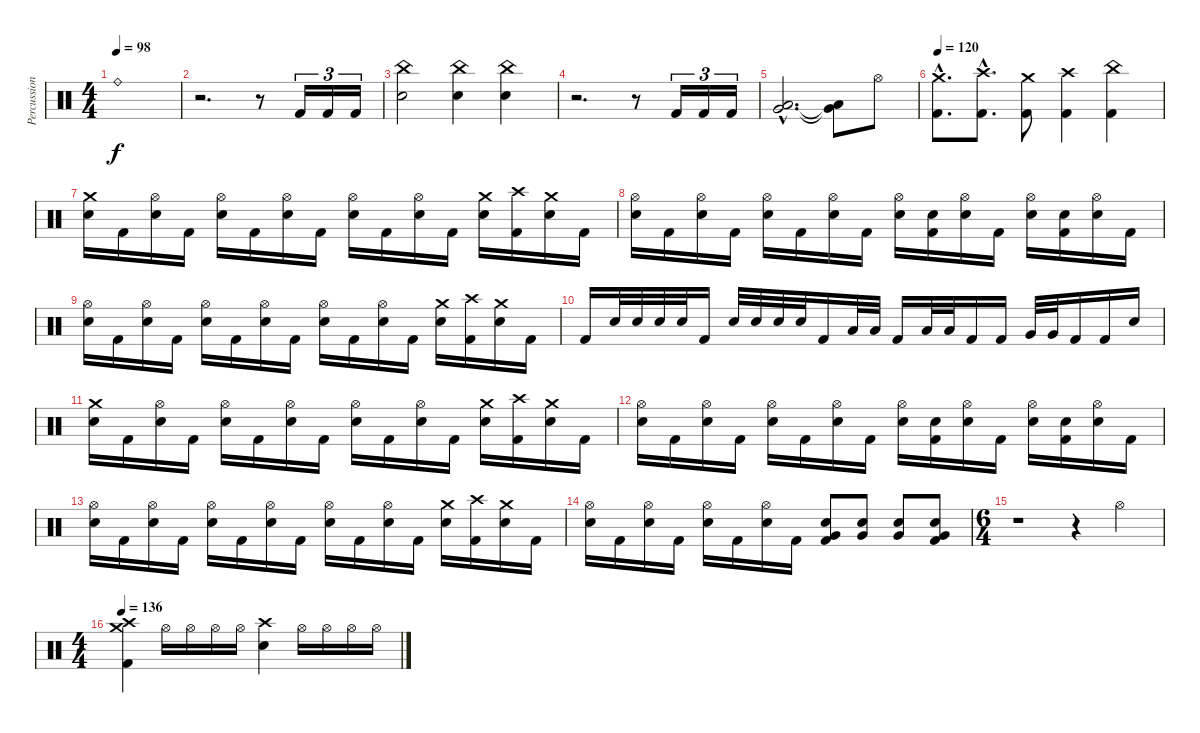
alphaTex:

\track ("Percussion" "Percussion") {instrument percussion}
\staff {score}
\articulation defaults
\ts (4 4)
\tempo 98
\clef neutral
\ks c "Ride (bell)".1{dy f}
|
r.2{d} r.8 "Kick (hit) 2".16{tu (3 2)} "Kick (hit) 2".16{tu (3 2)} "Kick (hit) 2".16{tu (3 2)} |
("China (hit)" "Electric Snare (hit)").2 ("China (hit)" "Electric Snare (hit)").4 ("China (hit)" "Electric Snare (hit)").4 |
r.2{d} r.8 "Kick (hit) 2".16{tu (3 2)} "Kick (hit) 2".16{tu (3 2)} "Kick (hit) 2".16{tu (3 2)} |
("Low Tom (hit)"{hac} "Very Low Tom (hit)"{hac}).2{d} ("Low Tom (hit)"{t} "Very Low Tom (hit)"{t}).8 "Hi-Hat (open)".8 |
\tempo 120
("Crash medium (hit)"{hac} "Kick (hit) 2"{hac}).8{d} ("Crash high (hit)"{hac} "Kick (hit) 2"{hac}).8{d} ("Crash medium (hit)" "Kick (hit) 2").8 ("Crash high (hit)" "Kick (hit) 2").4 ("China (hit)" "Kick (hit) 2").4 |
("Crash medium (hit)" "Electric Snare (hit)").16 "Kick (hit) 2".16 ("Hi-Hat (open)" "Electric Snare (hit)").16 "Kick (hit) 2".16 ("Hi-Hat (open)" "Electric Snare (hit)").16 "Kick (hit) 2".16 ("Hi-Hat (open)" "Electric Snare (hit)").16 "Kick (hit) 2".16 ("Hi-Hat (open)" "Electric Snare (hit)").16 "Kick (hit) 2".16 ("Hi-Hat (open)" "Electric Snare (hit)").16 "Kick (hit) 2".16 ("Crash medium (hit)" "Electric Snare (hit)").16 ("Crash high (hit)" "Kick (hit) 2").16 ("Crash medium (hit)" "Electric Snare (hit)").16 "Kick (hit) 2".16 |
("Hi-Hat (open)" "Electric Snare (hit)").16 "Kick (hit) 2".16 ("Hi-Hat (open)" "Electric Snare (hit)").16 "Kick (hit) 2".16 ("Hi-Hat (open)" "Electric Snare (hit)").16 "Kick (hit) 2".16 ("Hi-Hat (open)" "Electric Snare (hit)").16 "Kick (hit) 2".16 ("Hi-Hat (open)" "Electric Snare (hit)").16 ("Electric Snare (hit)" "Kick (hit) 2").16 ("Hi-Hat (open)" "Electric Snare (hit)").16 "Kick (hit) 2".16 ("Hi-Hat (open)" "Electric Snare (hit)").16 ("Electric Snare (hit)" "Kick (hit) 2").16 ("Hi-Hat (open)" "Electric Snare (hit)").16 "Kick (hit) 2".16 |
("Hi-Hat (open)" "Electric Snare (hit)").16 "Kick (hit) 2".16 ("Hi-Hat (open)" "Electric Snare (hit)").16 "Kick (hit) 2".16 ("Hi-Hat (open)" "Electric Snare (hit)").16 "Kick (hit) 2".16 ("Hi-Hat (open)" "Electric Snare (hit)").16 "Kick (hit) 2".16 ("Hi-Hat (open)" "Electric Snare (hit)").16 "Kick (hit) 2".16 ("Hi-Hat (open)" "Electric Snare (hit)").16 "Kick (hit) 2".16 ("Crash medium (hit)" "Electric Snare (hit)").16 ("Crash high (hit)" "Kick (hit) 2").16 ("Crash medium (hit)" "Electric Snare (hit)").16 "Kick (hit) 2".16 |
"Kick (hit) 2".16 "Electric Snare (hit)".32 "Electric Snare (hit)".32 "Electric Snare (hit)".32 "Electric Snare (hit)".32 "Kick (hit) 2".16 "Electric Snare (hit)".32 "Electric Snare (hit)".32 "Electric Snare (hit)".32 "Electric Snare (hit)".32 "Kick (hit) 2".16 "Low Tom (hit)".32 "Low Tom (hit)".32 "Kick (hit) 2".16 "Low Tom (hit)".32 "Low Tom (hit)".32 "Kick (hit) 2".16 "Kick (hit) 2".16 "Very Low Tom (hit)".32 "Very Low Tom (hit)".32 "Kick (hit) 2".16 "Kick (hit) 2".16 "Electric Snare (hit)".16 |
("Crash medium (hit)" "Electric Snare (hit)").16 "Kick (hit) 2".16 ("Hi-Hat (open)" "Electric Snare (hit)").16 "Kick (hit) 2".16 ("Hi-Hat (open)" "Electric Snare (hit)").16 "Kick (hit) 2".16 ("Hi-Hat (open)" "Electric Snare (hit)").16 "Kick (hit) 2".16 ("Hi-Hat (open)" "Electric Snare (hit)").16 "Kick (hit) 2".16 ("Hi-Hat (open)" "Electric Snare (hit)").16 "Kick (hit) 2".16 ("Crash medium (hit)" "Electric Snare (hit)").16 ("Crash high (hit)" "Kick (hit) 2").16 ("Crash medium (hit)" "Electric Snare (hit)").16 "Kick (hit) 2".16 |
("Hi-Hat (open)" "Electric Snare (hit)").16 "Kick (hit) 2".16 ("Hi-Hat (open)" "Electric Snare (hit)").16 "Kick (hit) 2".16 ("Hi-Hat (open)" "Electric Snare (hit)").16 "Kick (hit) 2".16 ("Hi-Hat (open)" "Electric Snare (hit)").16 "Kick (hit) 2".16 ("Hi-Hat (open)" "Electric Snare (hit)").16 ("Electric Snare (hit)" "Kick (hit) 2").16 ("Hi-Hat (open)" "Electric Snare (hit)").16 "Kick (hit) 2".16 ("Hi-Hat (open)" "Electric Snare (hit)").16 ("Electric Snare (hit)" "Kick (hit) 2").16 ("Hi-Hat (open)" "Electric Snare (hit)").16 "Kick (hit) 2".16 |
("Hi-Hat (open)" "Electric Snare (hit)").16 "Kick (hit) 2".16 ("Hi-Hat (open)" "Electric Snare (hit)").16 "Kick (hit) 2".16 ("Hi-Hat (open)" "Electric Snare (hit)").16 "Kick (hit) 2".16 ("Hi-Hat (open)" "Electric Snare (hit)").16 "Kick (hit) 2".16 ("Hi-Hat (open)" "Electric Snare (hit)").16 "Kick (hit) 2".16 ("Hi-Hat (open)" "Electric Snare (hit)").16 "Kick (hit) 2".16 ("Crash medium (hit)" "Electric Snare (hit)").16 ("Crash high (hit)" "Kick (hit) 2").16 ("Crash medium (hit)" "Electric Snare (hit)").16 "Kick (hit) 2".16 |
("Hi-Hat (open)" "Electric Snare (hit)").16 "Kick (hit) 2".16 ("Hi-Hat (open)" "Electric Snare (hit)").16 "Kick (hit) 2".16 ("Hi-Hat (open)" "Electric Snare (hit)").16 "Kick (hit) 2".16 ("Hi-Hat (open)" "Electric Snare (hit)").16 "Kick (hit) 2".16 ("Very Low Tom (hit)" "Electric Snare (hit)" "Kick (hit) 2").8 ("Very Low Tom (hit)" "Electric Snare (hit)").8 ("Very Low Tom (hit)" "Electric Snare (hit)").8 ("Very Low Tom (hit)" "Electric Snare (hit)" "Kick (hit) 2").8 |
\ts (6 4)
r.1 r.4 "Hi-Hat (open)".4 |
\ts (4 4)
\tempo 136
("Crash medium (hit)" "Crash high (hit)" "Kick (hit) 2").4 "Hi-Hat (open)".16 "Hi-Hat (open)".16 "Hi-Hat (open)".16 "Hi-Hat (open)".16 ("Crash high (hit)" "Electric Snare (hit)").4 "Hi-Hat (open)".16 "Hi-Hat (open)".16 "Hi-Hat (open)".16 "Hi-Hat (open)".16
